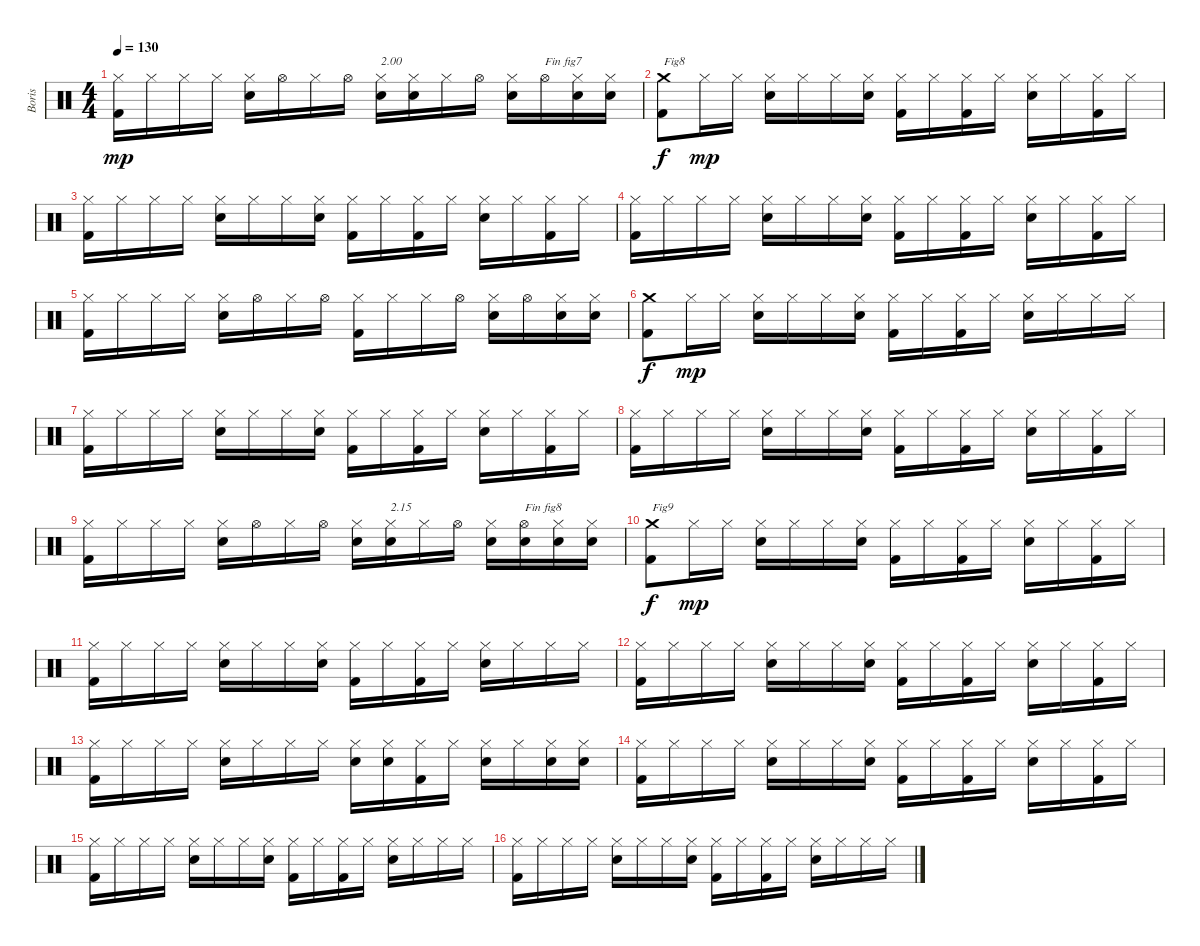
\track ("Boris" "Boris") {instrument percussion}
\staff {score}
\articulation defaults
\ts (4 4)
\tempo 130
\clef neutral
\ks c
("Kick (hit) 2" "Hi-Hat (closed)").16{dy mp} "Hi-Hat (closed)".16 "Hi-Hat (closed)".16 "Hi-Hat (closed)".16 ("Electric Snare (hit)" "Hi-Hat (closed)").16 "Hi-Hat (open)".16 "Hi-Hat (closed)".16 "Hi-Hat (open)".16 ("Electric Snare (hit)" "Hi-Hat (closed)").16{txt "2.00"} ("Electric Snare (hit)" "Hi-Hat (closed)").16 "Hi-Hat (closed)".16 "Hi-Hat (open)".16 ("Electric Snare (hit)" "Hi-Hat (closed)").16 "Hi-Hat (open)".16{txt "Fin fig7"} ("Electric Snare (hit)" "Hi-Hat (closed)").16 ("Electric Snare (hit)" "Hi-Hat (closed)").16 |
("Kick (hit) 2" "Crash medium (hit)").8{txt "Fig8" dy f} "Hi-Hat (closed)".16{dy mp} "Hi-Hat (closed)".16 ("Electric Snare (hit)" "Hi-Hat (closed)").16 "Hi-Hat (closed)".16 "Hi-Hat (closed)".16 ("Electric Snare (hit)" "Hi-Hat (closed)").16 ("Kick (hit) 2" "Hi-Hat (closed)").16 "Hi-Hat (closed)".16 ("Kick (hit) 2" "Hi-Hat (closed)").16 "Hi-Hat (closed)".16 ("Electric Snare (hit)" "Hi-Hat (closed)").16 "Hi-Hat (closed)".16 ("Kick (hit) 2" "Hi-Hat (closed)").16 "Hi-Hat (closed)".16 |
("Kick (hit) 2" "Hi-Hat (closed)").16 "Hi-Hat (closed)".16 "Hi-Hat (closed)".16 "Hi-Hat (closed)".16 ("Electric Snare (hit)" "Hi-Hat (closed)").16 "Hi-Hat (closed)".16 "Hi-Hat (closed)".16 ("Electric Snare (hit)" "Hi-Hat (closed)").16 ("Kick (hit) 2" "Hi-Hat (closed)").16 "Hi-Hat (closed)".16 ("Kick (hit) 2" "Hi-Hat (closed)").16 "Hi-Hat (closed)".16 ("Electric Snare (hit)" "Hi-Hat (closed)").16 "Hi-Hat (closed)".16 ("Kick (hit) 2" "Hi-Hat (closed)").16 "Hi-Hat (closed)".16 |
("Kick (hit) 2" "Hi-Hat (closed)").16 "Hi-Hat (closed)".16 "Hi-Hat (closed)".16 "Hi-Hat (closed)".16 ("Electric Snare (hit)" "Hi-Hat (closed)").16 "Hi-Hat (closed)".16 "Hi-Hat (closed)".16 ("Electric Snare (hit)" "Hi-Hat (closed)").16 ("Kick (hit) 2" "Hi-Hat (closed)").16 "Hi-Hat (closed)".16 ("Kick (hit) 2" "Hi-Hat (closed)").16 "Hi-Hat (closed)".16 ("Electric Snare (hit)" "Hi-Hat (closed)").16 "Hi-Hat (closed)".16 ("Kick (hit) 2" "Hi-Hat (closed)").16 "Hi-Hat (closed)".16 |
("Kick (hit) 2" "Hi-Hat (closed)").16 "Hi-Hat (closed)".16 "Hi-Hat (closed)".16 "Hi-Hat (closed)".16 ("Electric Snare (hit)" "Hi-Hat (closed)").16 "Hi-Hat (open)".16 "Hi-Hat (closed)".16 "Hi-Hat (open)".16 ("Kick (hit) 2" "Hi-Hat (closed)").16 "Hi-Hat (closed)".16 "Hi-Hat (closed)".16 "Hi-Hat (open)".16 ("Electric Snare (hit)" "Hi-Hat (closed)").16 "Hi-Hat (open)".16 ("Electric Snare (hit)" "Hi-Hat (closed)").16 ("Electric Snare (hit)" "Hi-Hat (closed)").16 |
("Kick (hit) 2" "Crash medium (hit)").8{dy f} "Hi-Hat (closed)".16{dy mp} "Hi-Hat (closed)".16 ("Electric Snare (hit)" "Hi-Hat (closed)").16 "Hi-Hat (closed)".16 "Hi-Hat (closed)".16 ("Electric Snare (hit)" "Hi-Hat (closed)").16 ("Kick (hit) 2" "Hi-Hat (closed)").16 "Hi-Hat (closed)".16 ("Kick (hit) 2" "Hi-Hat (closed)").16 "Hi-Hat (closed)".16 ("Electric Snare (hit)" "Hi-Hat (closed)").16 "Hi-Hat (closed)".16 "Hi-Hat (closed)".16 "Hi-Hat (closed)".16 |
("Kick (hit) 2" "Hi-Hat (closed)").16 "Hi-Hat (closed)".16 "Hi-Hat (closed)".16 "Hi-Hat (closed)".16 ("Electric Snare (hit)" "Hi-Hat (closed)").16 "Hi-Hat (closed)".16 "Hi-Hat (closed)".16 ("Electric Snare (hit)" "Hi-Hat (closed)").16 ("Kick (hit) 2" "Hi-Hat (closed)").16 "Hi-Hat (closed)".16 ("Kick (hit) 2" "Hi-Hat (closed)").16 "Hi-Hat (closed)".16 ("Electric Snare (hit)" "Hi-Hat (closed)").16 "Hi-Hat (closed)".16 ("Kick (hit) 2" "Hi-Hat (closed)").16 "Hi-Hat (closed)".16 |
("Kick (hit) 2" "Hi-Hat (closed)").16 "Hi-Hat (closed)".16 "Hi-Hat (closed)".16 "Hi-Hat (closed)".16 ("Electric Snare (hit)" "Hi-Hat (closed)").16 "Hi-Hat (closed)".16 "Hi-Hat (closed)".16 ("Electric Snare (hit)" "Hi-Hat (closed)").16 ("Kick (hit) 2" "Hi-Hat (closed)").16 "Hi-Hat (closed)".16 ("Kick (hit) 2" "Hi-Hat (closed)").16 "Hi-Hat (closed)".16 ("Electric Snare (hit)" "Hi-Hat (closed)").16 "Hi-Hat (closed)".16 ("Kick (hit) 2" "Hi-Hat (closed)").16 "Hi-Hat (closed)".16 |
("Kick (hit) 2" "Hi-Hat (closed)").16 "Hi-Hat (closed)".16 "Hi-Hat (closed)".16 "Hi-Hat (closed)".16 ("Electric Snare (hit)" "Hi-Hat (closed)").16 "Hi-Hat (open)".16 "Hi-Hat (closed)".16 "Hi-Hat (open)".16 ("Electric Snare (hit)" "Hi-Hat (closed)").16 ("Electric Snare (hit)" "Hi-Hat (closed)").16{txt "2.15"} "Hi-Hat (closed)".16 "Hi-Hat (open)".16 ("Electric Snare (hit)" "Hi-Hat (closed)").16 ("Electric Snare (hit)" "Hi-Hat (open)").16{txt "Fin fig8"} ("Electric Snare (hit)" "Hi-Hat (closed)").16 ("Electric Snare (hit)" "Hi-Hat (closed)").16 |
("Kick (hit) 2" "Crash medium (hit)").8{txt "Fig9" dy f} "Hi-Hat (closed)".16{dy mp} "Hi-Hat (closed)".16 ("Electric Snare (hit)" "Hi-Hat (closed)").16 "Hi-Hat (closed)".16 "Hi-Hat (closed)".16 ("Electric Snare (hit)" "Hi-Hat (closed)").16 ("Kick (hit) 2" "Hi-Hat (closed)").16 "Hi-Hat (closed)".16 ("Kick (hit) 2" "Hi-Hat (closed)").16 "Hi-Hat (closed)".16 ("Electric Snare (hit)" "Hi-Hat (closed)").16 "Hi-Hat (closed)".16 ("Kick (hit) 2" "Hi-Hat (closed)").16 "Hi-Hat (closed)".16 |
("Kick (hit) 2" "Hi-Hat (closed)").16 "Hi-Hat (closed)".16 "Hi-Hat (closed)".16 "Hi-Hat (closed)".16 ("Electric Snare (hit)" "Hi-Hat (closed)").16 "Hi-Hat (closed)".16 "Hi-Hat (closed)".16 ("Electric Snare (hit)" "Hi-Hat (closed)").16 ("Kick (hit) 2" "Hi-Hat (closed)").16 "Hi-Hat (closed)".16 ("Kick (hit) 2" "Hi-Hat (closed)").16 "Hi-Hat (closed)".16 ("Electric Snare (hit)" "Hi-Hat (closed)").16 "Hi-Hat (closed)".16 "Hi-Hat (closed)".16 "Hi-Hat (closed)".16 |
("Kick (hit) 2" "Hi-Hat (closed)").16 "Hi-Hat (closed)".16 "Hi-Hat (closed)".16 "Hi-Hat (closed)".16 ("Electric Snare (hit)" "Hi-Hat (closed)").16 "Hi-Hat (closed)".16 "Hi-Hat (closed)".16 ("Electric Snare (hit)" "Hi-Hat (closed)").16 ("Kick (hit) 2" "Hi-Hat (closed)").16 "Hi-Hat (closed)".16 ("Kick (hit) 2" "Hi-Hat (closed)").16 "Hi-Hat (closed)".16 ("Electric Snare (hit)" "Hi-Hat (closed)").16 "Hi-Hat (closed)".16 ("Kick (hit) 2" "Hi-Hat (closed)").16 "Hi-Hat (closed)".16 |
("Kick (hit) 2" "Hi-Hat (closed)").16 "Hi-Hat (closed)".16 "Hi-Hat (closed)".16 "Hi-Hat (closed)".16 ("Electric Snare (hit)" "Hi-Hat (closed)").16 "Hi-Hat (closed)".16 "Hi-Hat (closed)".16 "Hi-Hat (closed)".16 ("Electric Snare (hit)" "Hi-Hat (closed)").16 ("Electric Snare (hit)" "Hi-Hat (closed)").16 ("Kick (hit) 2" "Hi-Hat (closed)").16 "Hi-Hat (closed)".16 ("Electric Snare (hit)" "Hi-Hat (closed)").16 "Hi-Hat (closed)".16 ("Electric Snare (hit)" "Hi-Hat (closed)").16 ("Electric Snare (hit)" "Hi-Hat (closed)").16 |
("Kick (hit) 2" "Hi-Hat (closed)").16 "Hi-Hat (closed)".16 "Hi-Hat (closed)".16 "Hi-Hat (closed)".16 ("Electric Snare (hit)" "Hi-Hat (closed)").16 "Hi-Hat (closed)".16 "Hi-Hat (closed)".16 ("Electric Snare (hit)" "Hi-Hat (closed)").16 ("Kick (hit) 2" "Hi-Hat (closed)").16 "Hi-Hat (closed)".16 ("Kick (hit) 2" "Hi-Hat (closed)").16 "Hi-Hat (closed)".16 ("Electric Snare (hit)" "Hi-Hat (closed)").16 "Hi-Hat (closed)".16 ("Kick (hit) 2" "Hi-Hat (closed)").16 "Hi-Hat (closed)".16 |
("Kick (hit) 2" "Hi-Hat (closed)").16 "Hi-Hat (closed)".16 "Hi-Hat (closed)".16 "Hi-Hat (closed)".16 ("Electric Snare (hit)" "Hi-Hat (closed)").16 "Hi-Hat (closed)".16 "Hi-Hat (closed)".16 ("Electric Snare (hit)" "Hi-Hat (closed)").16 ("Kick (hit) 2" "Hi-Hat (closed)").16 "Hi-Hat (closed)".16 ("Kick (hit) 2" "Hi-Hat (closed)").16 "Hi-Hat (closed)".16 ("Electric Snare (hit)" "Hi-Hat (closed)").16 "Hi-Hat (closed)".16 "Hi-Hat (closed)".16 "Hi-Hat (closed)".16 |
("Kick (hit) 2" "Hi-Hat (closed)").16 "Hi-Hat (closed)".16 "Hi-Hat (closed)".16 "Hi-Hat (closed)".16 ("Electric Snare (hit)" "Hi-Hat (closed)").16 "Hi-Hat (closed)".16 "Hi-Hat (closed)".16 ("Electric Snare (hit)" "Hi-Hat (closed)").16 ("Kick (hit) 2" "Hi-Hat (closed)").16 "Hi-Hat (closed)".16 ("Kick (hit) 2" "Hi-Hat (closed)").16 "Hi-Hat (closed)".16 ("Electric Snare (hit)" "Hi-Hat (closed)").16 "Hi-Hat (closed)".16 "Hi-Hat (closed)".16 "Hi-Hat (closed)".16
